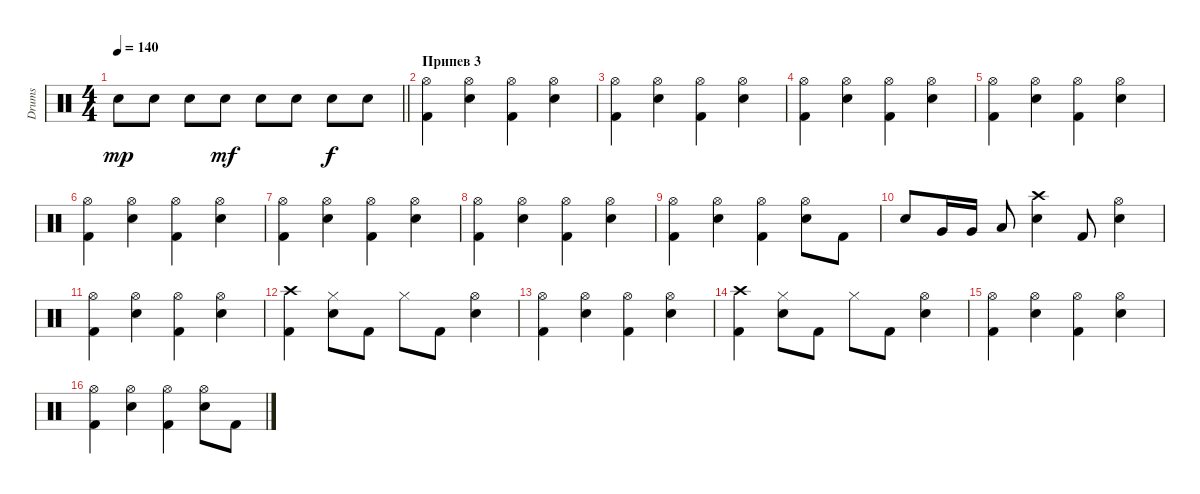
\track ("Drums" "Drums") {instrument percussion}
\staff {score}
\articulation defaults
\ts (4 4)
\tempo 140
\clef neutral
\barLineRight lightlight
\ks c "Snare (hit) 2".8{dy mp} "Snare (hit) 2".8 "Snare (hit) 2".8 "Snare (hit) 2".8{dy mf} "Snare (hit) 2".8 "Snare (hit) 2".8 "Snare (hit) 2".8{dy f} "Snare (hit) 2".8
|
\section ("" "Припев 3")
("Hi-Hat (open)" "Kick (hit) 2").4 ("Hi-Hat (open)" "Snare (hit) 2").4 ("Hi-Hat (open)" "Kick (hit) 2").4 ("Hi-Hat (open)" "Snare (hit) 2").4 |
("Hi-Hat (open)" "Kick (hit) 2").4 ("Hi-Hat (open)" "Snare (hit) 2").4 ("Hi-Hat (open)" "Kick (hit) 2").4 ("Hi-Hat (open)" "Snare (hit) 2").4 |
("Hi-Hat (open)" "Kick (hit) 2").4 ("Hi-Hat (open)" "Snare (hit) 2").4 ("Hi-Hat (open)" "Kick (hit) 2").4 ("Hi-Hat (open)" "Snare (hit) 2").4 |
("Hi-Hat (open)" "Kick (hit) 2").4 ("Hi-Hat (open)" "Snare (hit) 2").4 ("Hi-Hat (open)" "Kick (hit) 2").4 ("Hi-Hat (open)" "Snare (hit) 2").4 |
("Hi-Hat (open)" "Kick (hit) 2").4 ("Hi-Hat (open)" "Snare (hit) 2").4 ("Hi-Hat (open)" "Kick (hit) 2").4 ("Hi-Hat (open)" "Snare (hit) 2").4 |
("Hi-Hat (open)" "Kick (hit) 2").4 ("Hi-Hat (open)" "Snare (hit) 2").4 ("Hi-Hat (open)" "Kick (hit) 2").4 ("Hi-Hat (open)" "Snare (hit) 2").4 |
("Hi-Hat (open)" "Kick (hit) 2").4 ("Hi-Hat (open)" "Snare (hit) 2").4 ("Hi-Hat (open)" "Kick (hit) 2").4 ("Hi-Hat (open)" "Snare (hit) 2").4 |
("Hi-Hat (open)" "Kick (hit) 2").4 ("Hi-Hat (open)" "Snare (hit) 2").4 ("Hi-Hat (open)" "Kick (hit) 2").4 ("Hi-Hat (open)" "Snare (hit) 2").8 "Kick (hit) 2".8 |
"Snare (hit) 2".8 "Very Low Tom (hit)".16 "Very Low Tom (hit)".16 "Low Floor Tom (hit)".8 ("Crash high (hit)" "Snare (hit) 2").4 "Kick (hit) 2".8 ("Hi-Hat (open)" "Snare (hit) 2").4 |
("Hi-Hat (open)" "Kick (hit) 2").4 ("Hi-Hat (open)" "Snare (hit) 2").4 ("Hi-Hat (open)" "Kick (hit) 2").4 ("Hi-Hat (open)" "Snare (hit) 2").4 |
("Crash high (hit)" "Kick (hit) 2").4 ("Hi-Hat (closed)" "Snare (hit) 2").8 "Kick (hit) 2".8 "Hi-Hat (closed)".8 "Kick (hit) 2".8 ("Hi-Hat (open)" "Snare (hit) 2").4 |
("Hi-Hat (open)" "Kick (hit) 2").4 ("Hi-Hat (open)" "Snare (hit) 2").4 ("Hi-Hat (open)" "Kick (hit) 2").4 ("Hi-Hat (open)" "Snare (hit) 2").4 |
("Crash high (hit)" "Kick (hit) 2").4 ("Hi-Hat (closed)" "Snare (hit) 2").8 "Kick (hit) 2".8 "Hi-Hat (closed)".8 "Kick (hit) 2".8 ("Hi-Hat (open)" "Snare (hit) 2").4 |
("Hi-Hat (open)" "Kick (hit) 2").4 ("Hi-Hat (open)" "Snare (hit) 2").4 ("Hi-Hat (open)" "Kick (hit) 2").4 ("Hi-Hat (open)" "Snare (hit) 2").4 |
("Hi-Hat (open)" "Kick (hit) 2").4 ("Hi-Hat (open)" "Snare (hit) 2").4 ("Hi-Hat (open)" "Kick (hit) 2").4 ("Hi-Hat (open)" "Snare (hit) 2").8 "Kick (hit) 2".8
